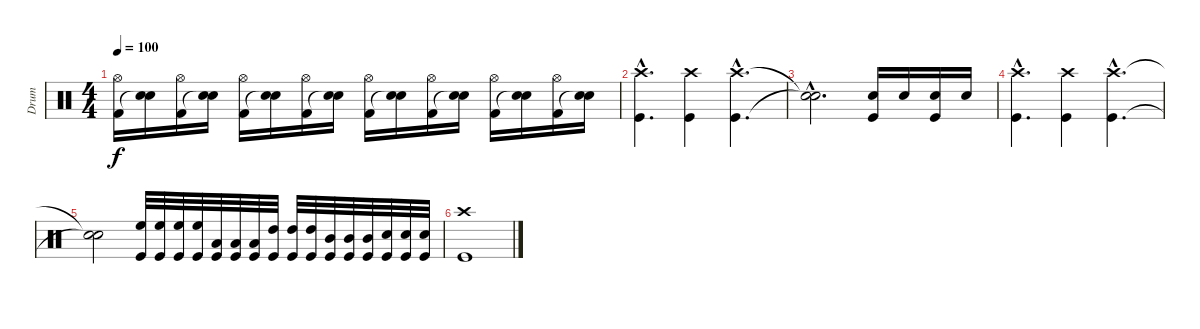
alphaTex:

\track ("Drum" "Drum") {instrument percussion}
\staff {score}
\articulation defaults
\ts (4 4)
\tempo 100
\clef neutral
\ks c
("Hi-Hat (open)" "Kick (hit) 2").16{dy f} ("Electric Snare (hit)" "Snare (hit)"{t}).16 ("Hi-Hat (open)" "Kick (hit) 2").16 ("Electric Snare (hit)" "Snare (hit)"{t}).16 ("Hi-Hat (open)" "Kick (hit) 2").16 ("Electric Snare (hit)" "Snare (hit)"{t}).16 ("Hi-Hat (open)" "Kick (hit) 2").16 ("Electric Snare (hit)" "Snare (hit)"{t}).16 ("Hi-Hat (open)" "Kick (hit) 2").16 ("Electric Snare (hit)" "Snare (hit)"{t}).16 ("Hi-Hat (open)" "Kick (hit) 2").16 ("Electric Snare (hit)" "Snare (hit)"{t}).16 ("Hi-Hat (open)" "Kick (hit) 2").16 ("Electric Snare (hit)" "Snare (hit)"{t}).16 ("Hi-Hat (open)" "Kick (hit) 2").16 ("Electric Snare (hit)" "Snare (hit)"{t}).16 |
("Crash high (hit)"{hac} "Kick (hit)"{hac}).4{d} ("Crash high (hit)" "Kick (hit)").4 ("Crash high (hit)"{hac} "Kick (hit)"{hac}).4{d} |
("Snare (hit)"{hac t} "Snare (hit)"{hac t}).2{d} ("Snare (hit) 2" "Kick (hit)").16 "Snare (hit) 2".16 ("Snare (hit) 2" "Kick (hit)").16 "Snare (hit) 2".16 |
("Crash high (hit)"{hac} "Kick (hit)"{hac}).4{d} ("Crash high (hit)" "Kick (hit)").4 ("Crash high (hit)"{hac} "Kick (hit)"{hac}).4{d} |
("Snare (hit)"{t} "Snare (hit)"{t}).2 ("High Floor Tom (hit)" "Kick (hit)").32 ("High Floor Tom (hit)" "Kick (hit)").32 ("High Floor Tom (hit)" "Kick (hit)").32 ("High Floor Tom (hit)" "Kick (hit)").32 ("Low Tom (hit)" "Kick (hit)").32 ("Low Tom (hit)" "Kick (hit)").32 ("Low Tom (hit)" "Kick (hit)").32 ("High Tom (hit)" "Kick (hit)").32 ("High Tom (hit)" "Kick (hit)").32 ("High Tom (hit)" "Kick (hit)").32 ("Mid Tom (hit)" "Kick (hit)").32 ("Mid Tom (hit)" "Kick (hit)").32 ("Mid Tom (hit)" "Kick (hit)").32 ("Snare (hit) 2" "Kick (hit)").32 ("Snare (hit) 2" "Kick (hit)").32 ("Snare (hit) 2" "Kick (hit)").32 |
("Crash high (hit)" "Kick (hit)").1
